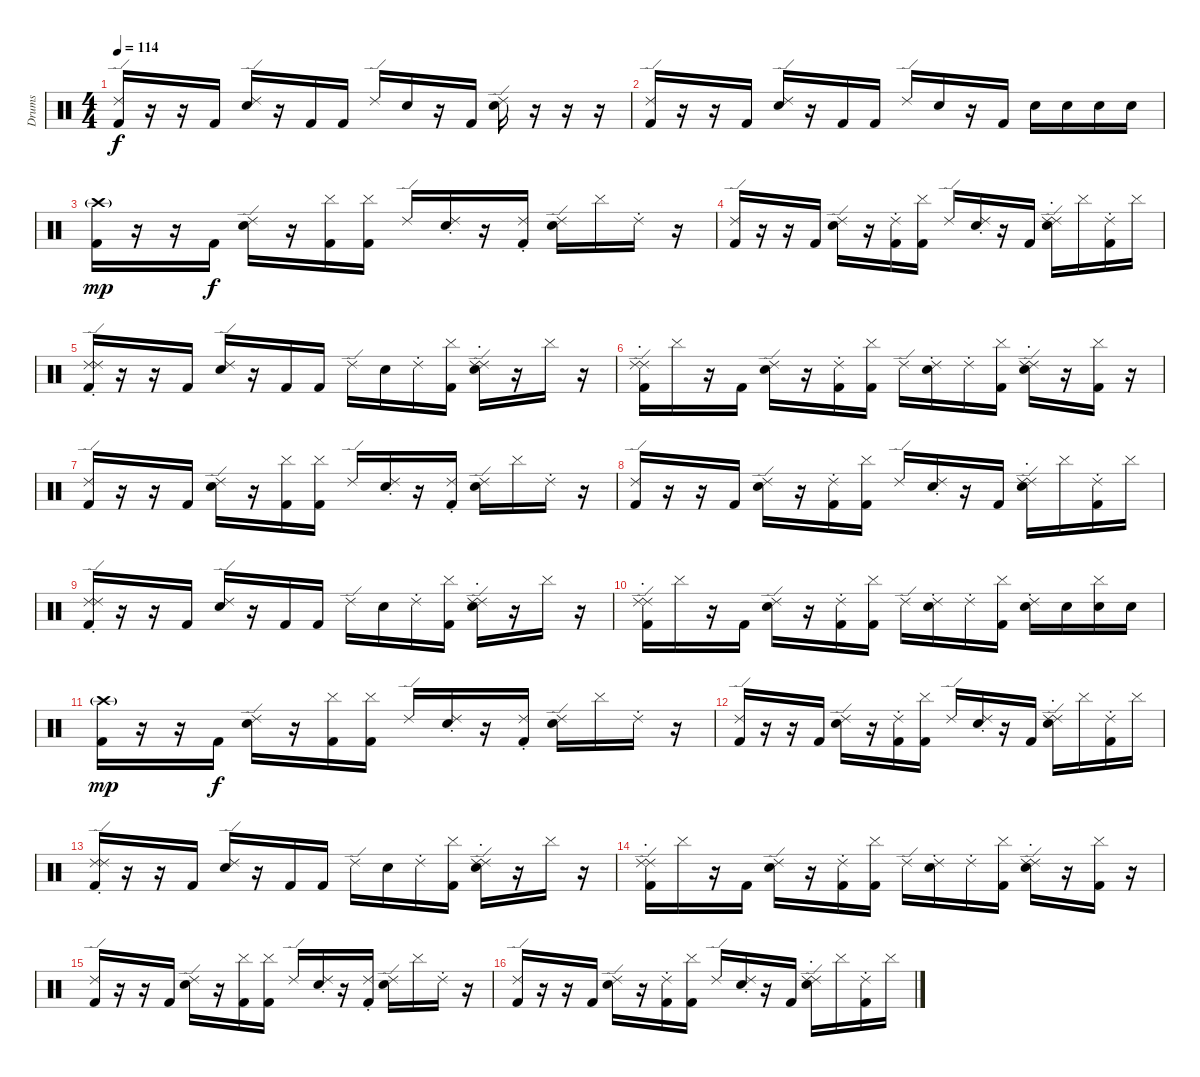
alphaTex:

\track ("Drums" "Drums") {instrument percussion}
\staff {score}
\articulation defaults
\ts (4 4)
\tempo 114
\clef neutral
\ks c
("Kick (hit) 2" "Ride (edge) 2").16{dy f} r.16 r.16 "Kick (hit) 2".16 ("Electric Snare (hit)" "Ride (edge) 2").16 r.16 "Kick (hit) 2".16 "Kick (hit) 2".16 "Ride (edge) 2".16 "Electric Snare (hit)".16 r.16 "Kick (hit) 2".16 ("Electric Snare (hit)" "Ride (edge) 2").16 r.16 r.16 r.16 |
("Kick (hit) 2" "Ride (edge) 2").16 r.16 r.16 "Kick (hit) 2".16 ("Electric Snare (hit)" "Ride (edge) 2").16 r.16 "Kick (hit) 2".16 "Kick (hit) 2".16 "Ride (edge) 2".16 "Electric Snare (hit)".16 r.16 "Kick (hit) 2".16 "Electric Snare (hit)".16 "Electric Snare (hit)".16 "Electric Snare (hit)".16 "Electric Snare (hit)".16 |
("Kick (hit) 2" "Crash high (hit)"{g}).16{dy mp} r.16 r.16 "Kick (hit) 2".16{dy f} ("Electric Snare (hit)" "Ride (edge) 2").16 r.16 ("Kick (hit) 2" "Cymbal (hit)").16 ("Kick (hit) 2" "Cymbal (hit)").16 "Ride (edge) 2".16 ("Electric Snare (hit)" "Ride (choke) 2").16 r.16 ("Kick (hit) 2" "Ride (choke) 2").16 ("Electric Snare (hit)" "Ride (edge) 2").16 "Cymbal (hit)".16 "Ride (choke) 2".16 r.16 |
("Kick (hit) 2" "Ride (edge) 2").16 r.16 r.16 "Kick (hit) 2".16 ("Electric Snare (hit)" "Ride (edge) 2").16 r.16 ("Kick (hit) 2" "Ride (choke) 2").16 ("Kick (hit) 2" "Cymbal (hit)").16 "Ride (edge) 2".16 ("Electric Snare (hit)" "Ride (choke) 2").16 r.16 "Kick (hit) 2".16 ("Electric Snare (hit)" "Ride (edge) 2" "Ride (choke) 2").16 "Cymbal (hit)".16 ("Kick (hit) 2" "Ride (choke) 2").16 "Cymbal (hit)".16 |
("Kick (hit) 2" "Ride (edge) 2" "Ride (choke) 2").16 r.16 r.16 "Kick (hit) 2".16 ("Electric Snare (hit)" "Ride (edge) 2").16 r.16 "Kick (hit) 2".16 "Kick (hit) 2".16 "Ride (edge) 2".16 "Electric Snare (hit)".16 "Ride (choke) 2".16 ("Kick (hit) 2" "Cymbal (hit)").16 ("Electric Snare (hit)" "Ride (edge) 2" "Ride (choke) 2").16 r.16 "Cymbal (hit)".16 r.16 |
("Kick (hit) 2" "Ride (edge) 2" "Ride (choke) 2").16 "Cymbal (hit)".16 r.16 "Kick (hit) 2".16 ("Electric Snare (hit)" "Ride (edge) 2").16 r.16 ("Kick (hit) 2" "Ride (choke) 2").16 ("Kick (hit) 2" "Cymbal (hit)").16 "Ride (edge) 2".16 ("Electric Snare (hit)" "Ride (choke) 2").16 "Ride (choke) 2".16 ("Kick (hit) 2" "Cymbal (hit)").16 ("Electric Snare (hit)" "Ride (edge) 2" "Ride (choke) 2").16 r.16 ("Kick (hit) 2" "Cymbal (hit)").16 r.16 |
("Kick (hit) 2" "Ride (edge) 2").16 r.16 r.16 "Kick (hit) 2".16 ("Electric Snare (hit)" "Ride (edge) 2").16 r.16 ("Kick (hit) 2" "Cymbal (hit)").16 ("Kick (hit) 2" "Cymbal (hit)").16 "Ride (edge) 2".16 ("Electric Snare (hit)" "Ride (choke) 2").16 r.16 ("Kick (hit) 2" "Ride (choke) 2").16 ("Electric Snare (hit)" "Ride (edge) 2").16 "Cymbal (hit)".16 "Ride (choke) 2".16 r.16 |
("Kick (hit) 2" "Ride (edge) 2").16 r.16 r.16 "Kick (hit) 2".16 ("Electric Snare (hit)" "Ride (edge) 2").16 r.16 ("Kick (hit) 2" "Ride (choke) 2").16 ("Kick (hit) 2" "Cymbal (hit)").16 "Ride (edge) 2".16 ("Electric Snare (hit)" "Ride (choke) 2").16 r.16 "Kick (hit) 2".16 ("Electric Snare (hit)" "Ride (edge) 2" "Ride (choke) 2").16 "Cymbal (hit)".16 ("Kick (hit) 2" "Ride (choke) 2").16 "Cymbal (hit)".16 |
("Kick (hit) 2" "Ride (edge) 2" "Ride (choke) 2").16 r.16 r.16 "Kick (hit) 2".16 ("Electric Snare (hit)" "Ride (edge) 2").16 r.16 "Kick (hit) 2".16 "Kick (hit) 2".16 "Ride (edge) 2".16 "Electric Snare (hit)".16 "Ride (choke) 2".16 ("Kick (hit) 2" "Cymbal (hit)").16 ("Electric Snare (hit)" "Ride (edge) 2" "Ride (choke) 2").16 r.16 "Cymbal (hit)".16 r.16 |
("Kick (hit) 2" "Ride (edge) 2" "Ride (choke) 2").16 "Cymbal (hit)".16 r.16 "Kick (hit) 2".16 ("Electric Snare (hit)" "Ride (edge) 2").16 r.16 ("Kick (hit) 2" "Ride (choke) 2").16 ("Kick (hit) 2" "Cymbal (hit)").16 "Ride (edge) 2".16 ("Electric Snare (hit)" "Ride (choke) 2").16 "Ride (choke) 2".16 ("Kick (hit) 2" "Cymbal (hit)").16 ("Electric Snare (hit)" "Ride (choke) 2").16 "Electric Snare (hit)".16 ("Electric Snare (hit)" "Cymbal (hit)").16 "Electric Snare (hit)".16 |
("Kick (hit) 2" "Crash high (hit)"{g}).16{dy mp} r.16 r.16 "Kick (hit) 2".16{dy f} ("Electric Snare (hit)" "Ride (edge) 2").16 r.16 ("Kick (hit) 2" "Cymbal (hit)").16 ("Kick (hit) 2" "Cymbal (hit)").16 "Ride (edge) 2".16 ("Electric Snare (hit)" "Ride (choke) 2").16 r.16 ("Kick (hit) 2" "Ride (choke) 2").16 ("Electric Snare (hit)" "Ride (edge) 2").16 "Cymbal (hit)".16 "Ride (choke) 2".16 r.16 |
("Kick (hit) 2" "Ride (edge) 2").16 r.16 r.16 "Kick (hit) 2".16 ("Electric Snare (hit)" "Ride (edge) 2").16 r.16 ("Kick (hit) 2" "Ride (choke) 2").16 ("Kick (hit) 2" "Cymbal (hit)").16 "Ride (edge) 2".16 ("Electric Snare (hit)" "Ride (choke) 2").16 r.16 "Kick (hit) 2".16 ("Electric Snare (hit)" "Ride (edge) 2" "Ride (choke) 2").16 "Cymbal (hit)".16 ("Kick (hit) 2" "Ride (choke) 2").16 "Cymbal (hit)".16 |
("Kick (hit) 2" "Ride (edge) 2" "Ride (choke) 2").16 r.16 r.16 "Kick (hit) 2".16 ("Electric Snare (hit)" "Ride (edge) 2").16 r.16 "Kick (hit) 2".16 "Kick (hit) 2".16 "Ride (edge) 2".16 "Electric Snare (hit)".16 "Ride (choke) 2".16 ("Kick (hit) 2" "Cymbal (hit)").16 ("Electric Snare (hit)" "Ride (edge) 2" "Ride (choke) 2").16 r.16 "Cymbal (hit)".16 r.16 |
("Kick (hit) 2" "Ride (edge) 2" "Ride (choke) 2").16 "Cymbal (hit)".16 r.16 "Kick (hit) 2".16 ("Electric Snare (hit)" "Ride (edge) 2").16 r.16 ("Kick (hit) 2" "Ride (choke) 2").16 ("Kick (hit) 2" "Cymbal (hit)").16 "Ride (edge) 2".16 ("Electric Snare (hit)" "Ride (choke) 2").16 "Ride (choke) 2".16 ("Kick (hit) 2" "Cymbal (hit)").16 ("Electric Snare (hit)" "Ride (edge) 2" "Ride (choke) 2").16 r.16 ("Kick (hit) 2" "Cymbal (hit)").16 r.16 |
("Kick (hit) 2" "Ride (edge) 2").16 r.16 r.16 "Kick (hit) 2".16 ("Electric Snare (hit)" "Ride (edge) 2").16 r.16 ("Kick (hit) 2" "Cymbal (hit)").16 ("Kick (hit) 2" "Cymbal (hit)").16 "Ride (edge) 2".16 ("Electric Snare (hit)" "Ride (choke) 2").16 r.16 ("Kick (hit) 2" "Ride (choke) 2").16 ("Electric Snare (hit)" "Ride (edge) 2").16 "Cymbal (hit)".16 "Ride (choke) 2".16 r.16 |
("Kick (hit) 2" "Ride (edge) 2").16 r.16 r.16 "Kick (hit) 2".16 ("Electric Snare (hit)" "Ride (edge) 2").16 r.16 ("Kick (hit) 2" "Ride (choke) 2").16 ("Kick (hit) 2" "Cymbal (hit)").16 "Ride (edge) 2".16 ("Electric Snare (hit)" "Ride (choke) 2").16 r.16 "Kick (hit) 2".16 ("Electric Snare (hit)" "Ride (edge) 2" "Ride (choke) 2").16 "Cymbal (hit)".16 ("Kick (hit) 2" "Ride (choke) 2").16 "Cymbal (hit)".16
